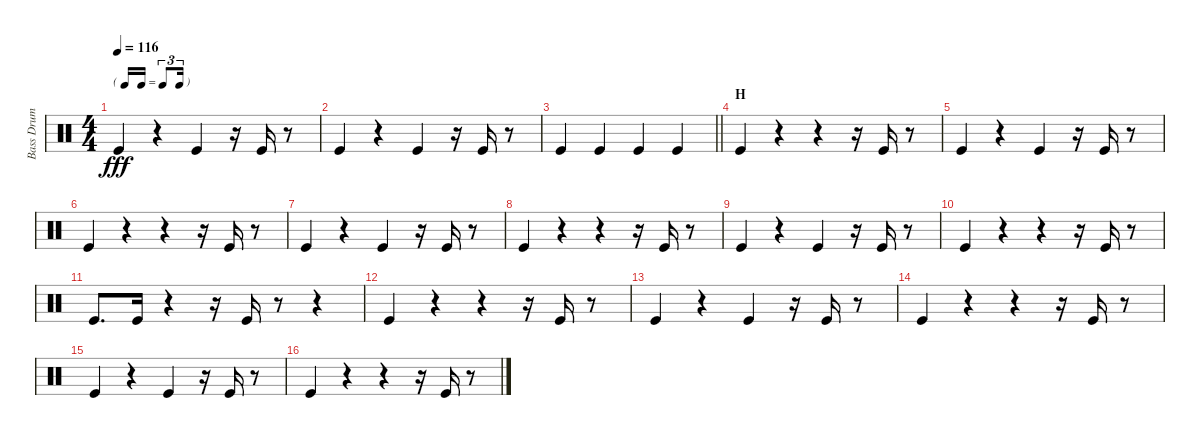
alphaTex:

\track ("Bass Drum" "Bass Drum") {instrument percussion}
\staff {score}
\articulation defaults
\ts (4 4)
\tf triplet16th
\tempo 116
\clef neutral
\ks c "Kick (hit)".4{dy fff}
r.4 "Kick (hit)".4 r.16 "Kick (hit)".16 r.8 |
"Kick (hit)".4 r.4 "Kick (hit)".4 r.16 "Kick (hit)".16 r.8 |
\barLineRight lightlight "Kick (hit)".4 "Kick (hit)".4 "Kick (hit)".4 "Kick (hit)".4
|
\section ("" "H")
"Kick (hit)".4 r.4 r.4 r.16 "Kick (hit)".16 r.8 |
"Kick (hit)".4 r.4 "Kick (hit)".4 r.16 "Kick (hit)".16 r.8 |
"Kick (hit)".4 r.4 r.4 r.16 "Kick (hit)".16 r.8 |
"Kick (hit)".4 r.4 "Kick (hit)".4 r.16 "Kick (hit)".16 r.8 |
"Kick (hit)".4 r.4 r.4 r.16 "Kick (hit)".16 r.8 |
"Kick (hit)".4 r.4 "Kick (hit)".4 r.16 "Kick (hit)".16 r.8 |
"Kick (hit)".4 r.4 r.4 r.16 "Kick (hit)".16 r.8 |
"Kick (hit)".8{d} "Kick (hit)".16 r.4 r.16 "Kick (hit)".16 r.8 r.4 |
"Kick (hit)".4 r.4 r.4 r.16 "Kick (hit)".16 r.8 |
"Kick (hit)".4 r.4 "Kick (hit)".4 r.16 "Kick (hit)".16 r.8 |
"Kick (hit)".4 r.4 r.4 r.16 "Kick (hit)".16 r.8 |
"Kick (hit)".4 r.4 "Kick (hit)".4 r.16 "Kick (hit)".16 r.8 |
"Kick (hit)".4 r.4 r.4 r.16 "Kick (hit)".16 r.8
